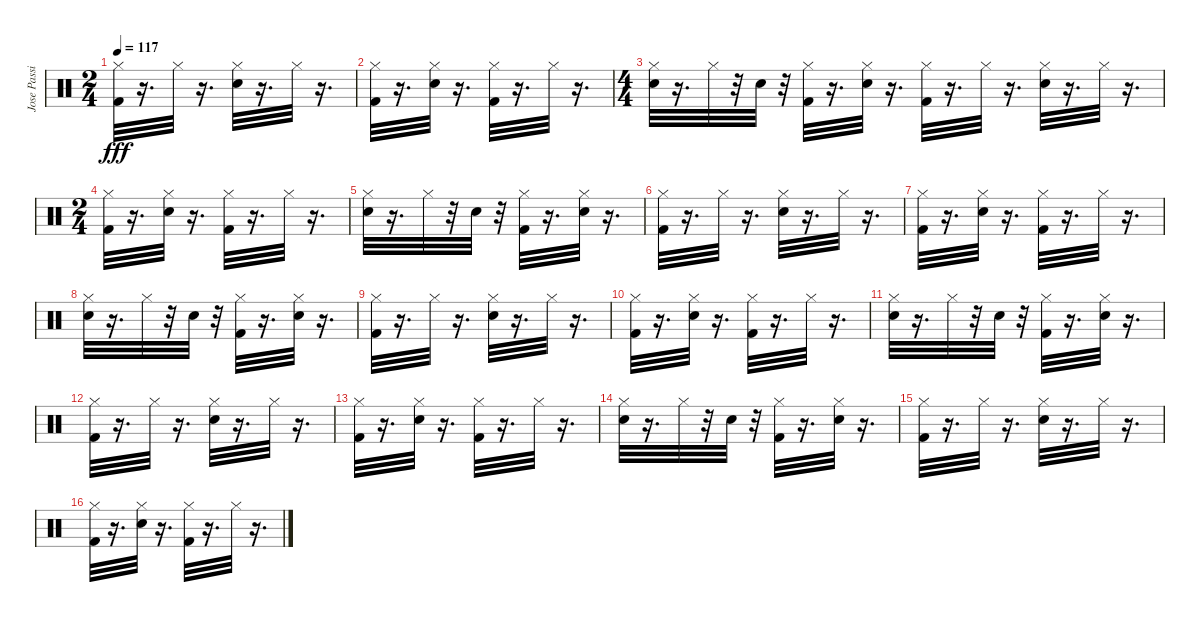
\track ("Jose Passilas-drums" "Jose Passi") {instrument percussion}
\staff {score}
\articulation defaults
\ts (2 4)
\tempo 117
\clef neutral
\ks c
("Kick (hit) 2" "Hi-Hat (closed)").32{dy fff} r.16{d} "Hi-Hat (closed)".32 r.16{d} ("Electric Snare (hit)" "Hi-Hat (closed)").32 r.16{d} "Hi-Hat (closed)".32 r.16{d} |
("Kick (hit) 2" "Hi-Hat (closed)").32 r.16{d} ("Electric Snare (hit)" "Hi-Hat (closed)").32 r.16{d} ("Hi-Hat (closed)" "Kick (hit) 2").32 r.16{d} "Hi-Hat (closed)".32 r.16{d} |
\ts (4 4)
("Electric Snare (hit)" "Hi-Hat (closed)").32 r.16{d} "Hi-Hat (closed)".32 r.32 "Electric Snare (hit)".32 r.32 ("Hi-Hat (closed)" "Kick (hit) 2").32 r.16{d} ("Electric Snare (hit)" "Hi-Hat (closed)").32 r.16{d} ("Hi-Hat (closed)" "Kick (hit) 2").32 r.16{d} "Hi-Hat (closed)".32 r.16{d} ("Electric Snare (hit)" "Hi-Hat (closed)").32 r.16{d} "Hi-Hat (closed)".32 r.16{d} |
\ts (2 4)
("Hi-Hat (closed)" "Kick (hit) 2").32 r.16{d} ("Electric Snare (hit)" "Hi-Hat (closed)").32 r.16{d} ("Kick (hit) 2" "Hi-Hat (closed)").32 r.16{d} "Hi-Hat (closed)".32 r.16{d} |
("Electric Snare (hit)" "Hi-Hat (closed)").32 r.16{d} "Hi-Hat (closed)".32 r.32 "Electric Snare (hit)".32 r.32 ("Kick (hit) 2" "Hi-Hat (closed)").32 r.16{d} ("Electric Snare (hit)" "Hi-Hat (closed)").32 r.16{d} |
("Kick (hit) 2" "Hi-Hat (closed)").32 r.16{d} "Hi-Hat (closed)".32 r.16{d} ("Electric Snare (hit)" "Hi-Hat (closed)").32 r.16{d} "Hi-Hat (closed)".32 r.16{d} |
("Kick (hit) 2" "Hi-Hat (closed)").32 r.16{d} ("Electric Snare (hit)" "Hi-Hat (closed)").32 r.16{d} ("Kick (hit) 2" "Hi-Hat (closed)").32 r.16{d} "Hi-Hat (closed)".32 r.16{d} |
("Hi-Hat (closed)" "Electric Snare (hit)").32 r.16{d} "Hi-Hat (closed)".32 r.32 "Electric Snare (hit)".32 r.32 ("Kick (hit) 2" "Hi-Hat (closed)").32 r.16{d} ("Hi-Hat (closed)" "Electric Snare (hit)").32 r.16{d} |
("Kick (hit) 2" "Hi-Hat (closed)").32 r.16{d} "Hi-Hat (closed)".32 r.16{d} ("Hi-Hat (closed)" "Electric Snare (hit)").32 r.16{d} "Hi-Hat (closed)".32 r.16{d} |
("Kick (hit) 2" "Hi-Hat (closed)").32 r.16{d} ("Hi-Hat (closed)" "Electric Snare (hit)").32 r.16{d} ("Hi-Hat (closed)" "Kick (hit) 2").32 r.16{d} "Hi-Hat (closed)".32 r.16{d} |
("Hi-Hat (closed)" "Electric Snare (hit)").32 r.16{d} "Hi-Hat (closed)".32 r.32 "Electric Snare (hit)".32 r.32 ("Hi-Hat (closed)" "Kick (hit) 2").32 r.16{d} ("Hi-Hat (closed)" "Electric Snare (hit)").32 r.16{d} |
("Hi-Hat (closed)" "Kick (hit) 2").32 r.16{d} "Hi-Hat (closed)".32 r.16{d} ("Hi-Hat (closed)" "Electric Snare (hit)").32 r.16{d} "Hi-Hat (closed)".32 r.16{d} |
("Hi-Hat (closed)" "Kick (hit) 2").32 r.16{d} ("Hi-Hat (closed)" "Electric Snare (hit)").32 r.16{d} ("Kick (hit) 2" "Hi-Hat (closed)").32 r.16{d} "Hi-Hat (closed)".32 r.16{d} |
("Hi-Hat (closed)" "Electric Snare (hit)").32 r.16{d} "Hi-Hat (closed)".32 r.32 "Electric Snare (hit)".32 r.32 ("Kick (hit) 2" "Hi-Hat (closed)").32 r.16{d} ("Hi-Hat (closed)" "Electric Snare (hit)").32 r.16{d} |
("Kick (hit) 2" "Hi-Hat (closed)").32 r.16{d} "Hi-Hat (closed)".32 r.16{d} ("Hi-Hat (closed)" "Electric Snare (hit)").32 r.16{d} "Hi-Hat (closed)".32 r.16{d} |
("Kick (hit) 2" "Hi-Hat (closed)").32 r.16{d} ("Hi-Hat (closed)" "Electric Snare (hit)").32 r.16{d} ("Hi-Hat (closed)" "Kick (hit) 2").32 r.16{d} "Hi-Hat (closed)".32 r.16{d}
